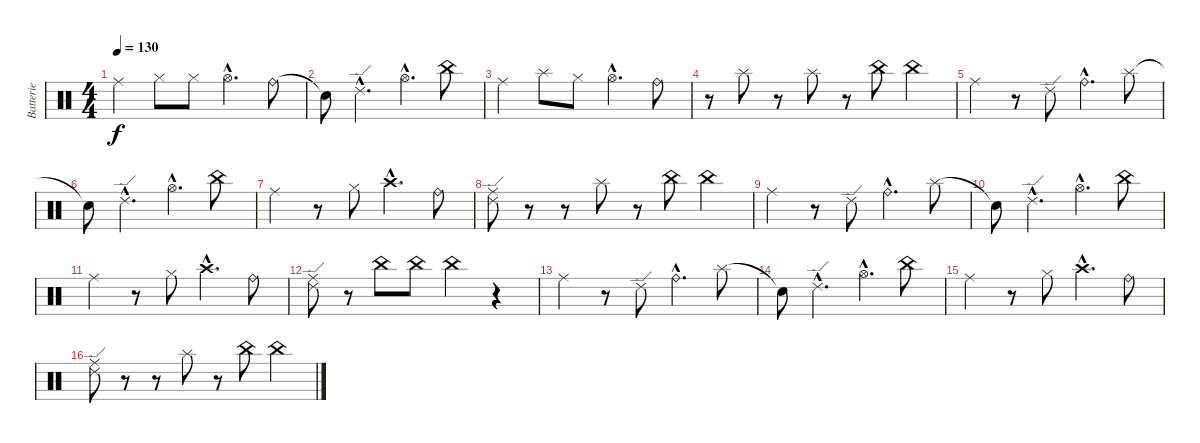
\track ("Batterie" "Batterie") {instrument percussion}
\staff {score}
\articulation defaults
\ts (4 4)
\tempo 130
\clef neutral
\ks c "Ride (middle)".4{dy f} "Hi-Hat (closed)".8 "Hi-Hat (closed)".8 "Hi-Hat (open)"{hac}.4{d} "Ride (bell)".8
|
"Snare (hit)"{t}.8 "Ride (edge) 2"{hac}.4{d} "Hi-Hat (open)"{hac}.4{d} "China (hit)".8 |
"Ride (middle)".4 "Splash (hit)".8 "Hi-Hat (closed)".8 "Hi-Hat (open)"{hac}.4{d} "Ride (bell)".8 |
r.8 "Splash (hit)".8 r.8 "Splash (hit)".8 r.8 "China (hit)".8 "China (hit)".4 |
"Ride (middle)".4 r.8 "Ride (edge) 2".8 "Ride (bell)"{hac}.4{d} "Splash (hit)".8 |
"Snare (hit)"{t}.8 "Ride (edge) 2"{hac}.4{d} "Hi-Hat (open)"{hac}.4{d} "China (hit)".8 |
"Ride (middle)".4 r.8 "Hi-Hat (closed)".8 "Crash high (hit)"{hac}.4{d} "Ride (bell)".8 |
("Ride (middle)" "Ride (edge) 2").8 r.8 r.8 "Splash (hit)".8 r.8 "China (hit)".8 "China (hit)".4 |
"Ride (middle)".4 r.8 "Ride (edge) 2".8 "Ride (bell)"{hac}.4{d} "Splash (hit)".8 |
"Snare (hit)"{t}.8 "Ride (edge) 2"{hac}.4{d} "Hi-Hat (open)"{hac}.4{d} "China (hit)".8 |
"Ride (middle)".4 r.8 "Hi-Hat (closed)".8 "Crash high (hit)"{hac}.4{d} "Ride (bell)".8 |
("Ride (middle)" "Ride (edge) 2").8 r.8 "China (hit)".8 "China (hit)".8 "China (hit)".4 r.4 |
"Ride (middle)".4 r.8 "Ride (edge) 2".8 "Ride (bell)"{hac}.4{d} "Splash (hit)".8 |
"Snare (hit)"{t}.8 "Ride (edge) 2"{hac}.4{d} "Hi-Hat (open)"{hac}.4{d} "China (hit)".8 |
"Ride (middle)".4 r.8 "Hi-Hat (closed)".8 "Crash high (hit)"{hac}.4{d} "Ride (bell)".8 |
("Ride (middle)" "Ride (edge) 2").8 r.8 r.8 "Splash (hit)".8 r.8 "China (hit)".8 "China (hit)".4
